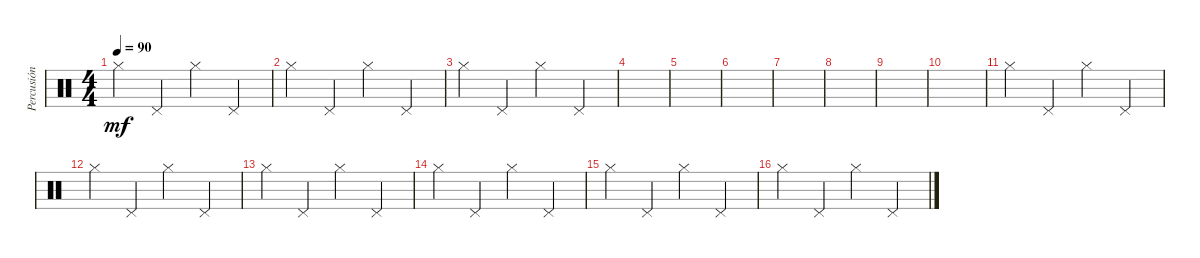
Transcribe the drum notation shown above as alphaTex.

\track ("Percusión" "Percusión") {instrument percussion}
\staff {score}
\articulation defaults
\ts (4 4)
\tempo 90
\clef neutral
\ks c "Hi-Hat (closed)".4{dy mf} "Pedal Hi-Hat (hit)".4 "Hi-Hat (closed)".4 "Pedal Hi-Hat (hit)".4
|
"Hi-Hat (closed)".4 "Pedal Hi-Hat (hit)".4 "Hi-Hat (closed)".4 "Pedal Hi-Hat (hit)".4 |
"Hi-Hat (closed)".4 "Pedal Hi-Hat (hit)".4 "Hi-Hat (closed)".4 "Pedal Hi-Hat (hit)".4 |
|
|
|
|
|
|
|
"Hi-Hat (closed)".4 "Pedal Hi-Hat (hit)".4 "Hi-Hat (closed)".4 "Pedal Hi-Hat (hit)".4 |
"Hi-Hat (closed)".4 "Pedal Hi-Hat (hit)".4 "Hi-Hat (closed)".4 "Pedal Hi-Hat (hit)".4 |
"Hi-Hat (closed)".4 "Pedal Hi-Hat (hit)".4 "Hi-Hat (closed)".4 "Pedal Hi-Hat (hit)".4 |
"Hi-Hat (closed)".4 "Pedal Hi-Hat (hit)".4 "Hi-Hat (closed)".4 "Pedal Hi-Hat (hit)".4 |
"Hi-Hat (closed)".4 "Pedal Hi-Hat (hit)".4 "Hi-Hat (closed)".4 "Pedal Hi-Hat (hit)".4 |
"Hi-Hat (closed)".4 "Pedal Hi-Hat (hit)".4 "Hi-Hat (closed)".4 "Pedal Hi-Hat (hit)".4
